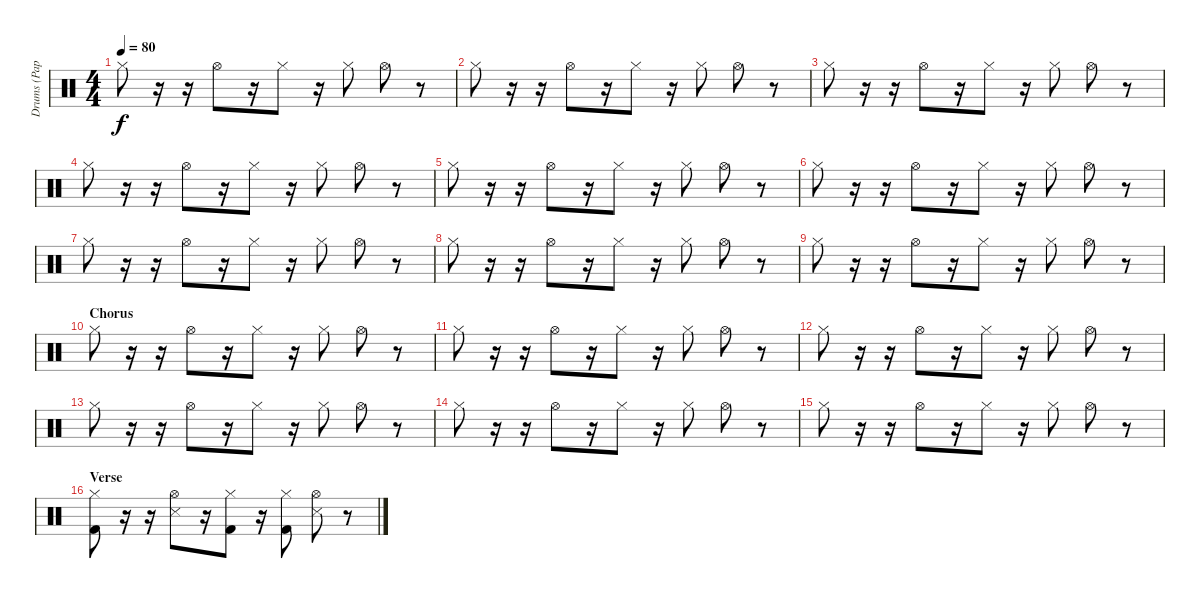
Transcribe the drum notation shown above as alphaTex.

\track ("Drums (Pappas)" "Drums (Pap") {instrument percussion}
\staff {score}
\articulation defaults
\ts (4 4)
\tempo 80
\clef neutral
\ks c "Hi-Hat (closed)".8{dy f}
r.16 r.16 "Hi-Hat (open)".8 r.16 "Hi-Hat (closed)".8 r.16 "Hi-Hat (closed)".8 "Hi-Hat (open)".8 r.8 |
"Hi-Hat (closed)".8 r.16 r.16 "Hi-Hat (open)".8 r.16 "Hi-Hat (closed)".8 r.16 "Hi-Hat (closed)".8 "Hi-Hat (open)".8 r.8 |
"Hi-Hat (closed)".8 r.16 r.16 "Hi-Hat (open)".8 r.16 "Hi-Hat (closed)".8 r.16 "Hi-Hat (closed)".8 "Hi-Hat (open)".8 r.8 |
"Hi-Hat (closed)".8 r.16 r.16 "Hi-Hat (open)".8 r.16 "Hi-Hat (closed)".8 r.16 "Hi-Hat (closed)".8 "Hi-Hat (open)".8 r.8 |
"Hi-Hat (closed)".8 r.16 r.16 "Hi-Hat (open)".8 r.16 "Hi-Hat (closed)".8 r.16 "Hi-Hat (closed)".8 "Hi-Hat (open)".8 r.8 |
"Hi-Hat (closed)".8 r.16 r.16 "Hi-Hat (open)".8 r.16 "Hi-Hat (closed)".8 r.16 "Hi-Hat (closed)".8 "Hi-Hat (open)".8 r.8 |
"Hi-Hat (closed)".8 r.16 r.16 "Hi-Hat (open)".8 r.16 "Hi-Hat (closed)".8 r.16 "Hi-Hat (closed)".8 "Hi-Hat (open)".8 r.8 |
"Hi-Hat (closed)".8 r.16 r.16 "Hi-Hat (open)".8 r.16 "Hi-Hat (closed)".8 r.16 "Hi-Hat (closed)".8 "Hi-Hat (open)".8 r.8 |
"Hi-Hat (closed)".8 r.16 r.16 "Hi-Hat (open)".8 r.16 "Hi-Hat (closed)".8 r.16 "Hi-Hat (closed)".8 "Hi-Hat (open)".8 r.8 |
\section ("" "Chorus")
"Hi-Hat (closed)".8 r.16 r.16 "Hi-Hat (open)".8 r.16 "Hi-Hat (closed)".8 r.16 "Hi-Hat (closed)".8 "Hi-Hat (open)".8 r.8 |
"Hi-Hat (closed)".8 r.16 r.16 "Hi-Hat (open)".8 r.16 "Hi-Hat (closed)".8 r.16 "Hi-Hat (closed)".8 "Hi-Hat (open)".8 r.8 |
"Hi-Hat (closed)".8 r.16 r.16 "Hi-Hat (open)".8 r.16 "Hi-Hat (closed)".8 r.16 "Hi-Hat (closed)".8 "Hi-Hat (open)".8 r.8 |
"Hi-Hat (closed)".8 r.16 r.16 "Hi-Hat (open)".8 r.16 "Hi-Hat (closed)".8 r.16 "Hi-Hat (closed)".8 "Hi-Hat (open)".8 r.8 |
"Hi-Hat (closed)".8 r.16 r.16 "Hi-Hat (open)".8 r.16 "Hi-Hat (closed)".8 r.16 "Hi-Hat (closed)".8 "Hi-Hat (open)".8 r.8 |
"Hi-Hat (closed)".8 r.16 r.16 "Hi-Hat (open)".8 r.16 "Hi-Hat (closed)".8 r.16 "Hi-Hat (closed)".8 "Hi-Hat (open)".8 r.8 |
\section ("" "Verse")
("Hi-Hat (closed)" "Kick (hit) 2").8 r.16 r.16 ("Hi-Hat (open)" "Snare (side stick) 3").8 r.16 ("Hi-Hat (closed)" "Kick (hit) 2").8 r.16 ("Hi-Hat (closed)" "Kick (hit) 2").8 ("Hi-Hat (open)" "Snare (side stick) 3").8 r.8
